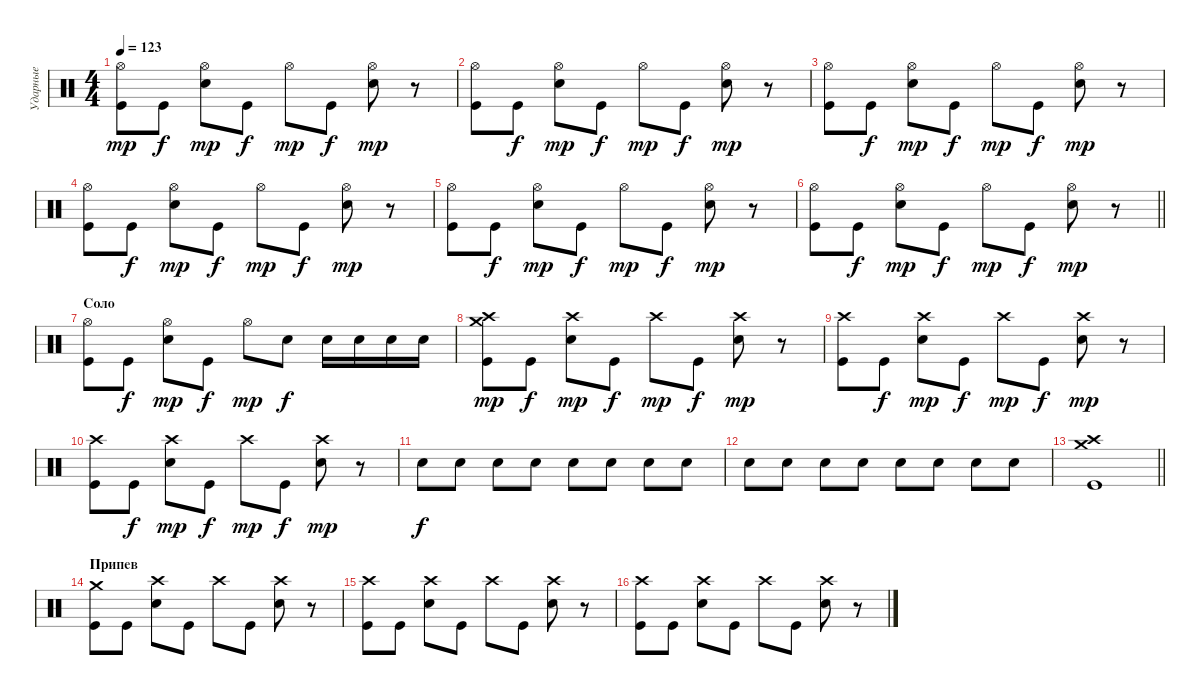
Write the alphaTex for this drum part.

\track ("Ударные" "Ударные") {instrument percussion}
\staff {score}
\articulation defaults
\ts (4 4)
\tempo 123
\clef neutral
\ks c
("Hi-Hat (open)" "Kick (hit)").8{dy mp} "Kick (hit)".8{dy f} ("Hi-Hat (open)" "Electric Snare (hit)").8{dy mp} "Kick (hit)".8{dy f} "Hi-Hat (open)".8{dy mp} "Kick (hit)".8{dy f} ("Hi-Hat (open)" "Electric Snare (hit)").8{dy mp} r.8 |
("Hi-Hat (open)" "Kick (hit)").8 "Kick (hit)".8{dy f} ("Hi-Hat (open)" "Electric Snare (hit)").8{dy mp} "Kick (hit)".8{dy f} "Hi-Hat (open)".8{dy mp} "Kick (hit)".8{dy f} ("Hi-Hat (open)" "Electric Snare (hit)").8{dy mp} r.8 |
("Hi-Hat (open)" "Kick (hit)").8 "Kick (hit)".8{dy f} ("Hi-Hat (open)" "Electric Snare (hit)").8{dy mp} "Kick (hit)".8{dy f} "Hi-Hat (open)".8{dy mp} "Kick (hit)".8{dy f} ("Hi-Hat (open)" "Electric Snare (hit)").8{dy mp} r.8 |
("Hi-Hat (open)" "Kick (hit)").8 "Kick (hit)".8{dy f} ("Hi-Hat (open)" "Electric Snare (hit)").8{dy mp} "Kick (hit)".8{dy f} "Hi-Hat (open)".8{dy mp} "Kick (hit)".8{dy f} ("Hi-Hat (open)" "Electric Snare (hit)").8{dy mp} r.8 |
("Hi-Hat (open)" "Kick (hit)").8 "Kick (hit)".8{dy f} ("Hi-Hat (open)" "Electric Snare (hit)").8{dy mp} "Kick (hit)".8{dy f} "Hi-Hat (open)".8{dy mp} "Kick (hit)".8{dy f} ("Hi-Hat (open)" "Electric Snare (hit)").8{dy mp} r.8 |
\barLineRight lightlight
("Hi-Hat (open)" "Kick (hit)").8 "Kick (hit)".8{dy f} ("Hi-Hat (open)" "Electric Snare (hit)").8{dy mp} "Kick (hit)".8{dy f} "Hi-Hat (open)".8{dy mp} "Kick (hit)".8{dy f} ("Hi-Hat (open)" "Electric Snare (hit)").8{dy mp} r.8 |
\section ("" "Соло")
("Hi-Hat (open)" "Kick (hit)").8 "Kick (hit)".8{dy f} ("Hi-Hat (open)" "Electric Snare (hit)").8{dy mp} "Kick (hit)".8{dy f} "Hi-Hat (open)".8{dy mp} "Electric Snare (hit)".8{dy f} "Electric Snare (hit)".16 "Electric Snare (hit)".16 "Electric Snare (hit)".16 "Electric Snare (hit)".16 |
("Crash high (hit)" "Kick (hit)" "Crash medium (hit)").8{dy mp} "Kick (hit)".8{dy f} ("Crash high (hit)" "Electric Snare (hit)").8{dy mp} "Kick (hit)".8{dy f} "Crash high (hit)".8{dy mp} "Kick (hit)".8{dy f} ("Crash high (hit)" "Electric Snare (hit)").8{dy mp} r.8 |
("Crash high (hit)" "Kick (hit)").8 "Kick (hit)".8{dy f} ("Crash high (hit)" "Electric Snare (hit)").8{dy mp} "Kick (hit)".8{dy f} "Crash high (hit)".8{dy mp} "Kick (hit)".8{dy f} ("Crash high (hit)" "Electric Snare (hit)").8{dy mp} r.8 |
("Crash high (hit)" "Kick (hit)").8 "Kick (hit)".8{dy f} ("Crash high (hit)" "Electric Snare (hit)").8{dy mp} "Kick (hit)".8{dy f} "Crash high (hit)".8{dy mp} "Kick (hit)".8{dy f} ("Crash high (hit)" "Electric Snare (hit)").8{dy mp} r.8 |
"Electric Snare (hit)".8{dy f} "Electric Snare (hit)".8 "Electric Snare (hit)".8 "Electric Snare (hit)".8 "Electric Snare (hit)".8 "Electric Snare (hit)".8 "Electric Snare (hit)".8 "Electric Snare (hit)".8 |
"Electric Snare (hit)".8 "Electric Snare (hit)".8 "Electric Snare (hit)".8 "Electric Snare (hit)".8 "Electric Snare (hit)".8 "Electric Snare (hit)".8 "Electric Snare (hit)".8 "Electric Snare (hit)".8 |
\barLineRight lightlight
("Crash high (hit)" "Crash medium (hit)" "Kick (hit)").1 |
\section ("" "Припев")
("Crash medium (hit)" "Kick (hit)").8 "Kick (hit)".8 ("Crash high (hit)" "Electric Snare (hit)").8 "Kick (hit)".8 "Crash high (hit)".8 "Kick (hit)".8 ("Crash high (hit)" "Electric Snare (hit)").8 r.8 |
("Crash high (hit)" "Kick (hit)").8 "Kick (hit)".8 ("Crash high (hit)" "Electric Snare (hit)").8 "Kick (hit)".8 "Crash high (hit)".8 "Kick (hit)".8 ("Crash high (hit)" "Electric Snare (hit)").8 r.8 |
("Crash high (hit)" "Kick (hit)").8 "Kick (hit)".8 ("Crash high (hit)" "Electric Snare (hit)").8 "Kick (hit)".8 "Crash high (hit)".8 "Kick (hit)".8 ("Crash high (hit)" "Electric Snare (hit)").8 r.8
